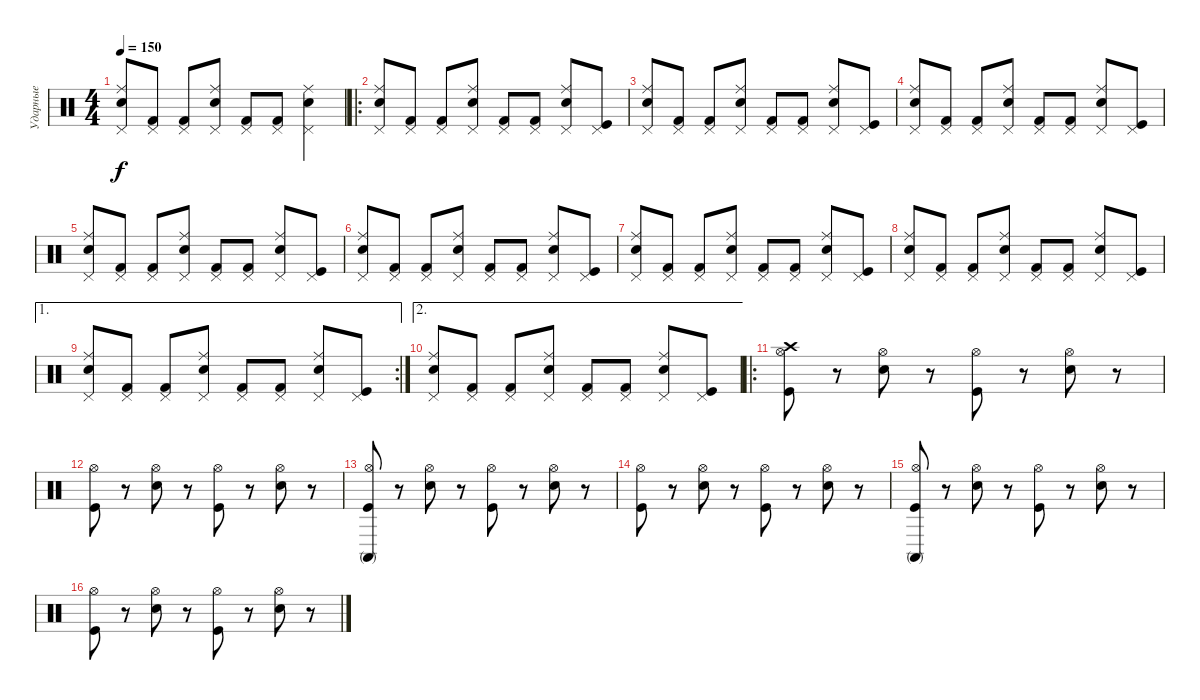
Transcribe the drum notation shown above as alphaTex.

\track ("Ударные" "Ударные") {instrument percussion}
\staff {score}
\articulation defaults
\ts (4 4)
\tempo 150
\clef neutral
\ks c
("Electric Snare (hit)" "Pedal Hi-Hat (hit)" "Ride (middle)").8{dy f} ("Kick (hit) 2" "Pedal Hi-Hat (hit)").8 ("Kick (hit) 2" "Pedal Hi-Hat (hit)").8 ("Electric Snare (hit)" "Pedal Hi-Hat (hit)" "Ride (middle)").8 ("Kick (hit) 2" "Pedal Hi-Hat (hit)").8 ("Kick (hit) 2" "Pedal Hi-Hat (hit)").8 ("Electric Snare (hit)" "Pedal Hi-Hat (hit)" "Ride (middle)").4 |
\ro
("Electric Snare (hit)" "Pedal Hi-Hat (hit)" "Ride (middle)").8 ("Kick (hit) 2" "Pedal Hi-Hat (hit)").8 ("Kick (hit) 2" "Pedal Hi-Hat (hit)").8 ("Electric Snare (hit)" "Pedal Hi-Hat (hit)" "Ride (middle)").8 ("Kick (hit) 2" "Pedal Hi-Hat (hit)").8 ("Kick (hit) 2" "Pedal Hi-Hat (hit)").8 ("Electric Snare (hit)" "Pedal Hi-Hat (hit)" "Ride (middle)").8 ("Kick (hit)" "Pedal Hi-Hat (hit)").8 |
("Electric Snare (hit)" "Pedal Hi-Hat (hit)" "Ride (middle)").8 ("Kick (hit) 2" "Pedal Hi-Hat (hit)").8 ("Kick (hit) 2" "Pedal Hi-Hat (hit)").8 ("Electric Snare (hit)" "Pedal Hi-Hat (hit)" "Ride (middle)").8 ("Kick (hit) 2" "Pedal Hi-Hat (hit)").8 ("Kick (hit) 2" "Pedal Hi-Hat (hit)").8 ("Electric Snare (hit)" "Pedal Hi-Hat (hit)" "Ride (middle)").8 ("Kick (hit)" "Pedal Hi-Hat (hit)").8 |
("Electric Snare (hit)" "Pedal Hi-Hat (hit)" "Ride (middle)").8 ("Kick (hit) 2" "Pedal Hi-Hat (hit)").8 ("Kick (hit) 2" "Pedal Hi-Hat (hit)").8 ("Electric Snare (hit)" "Pedal Hi-Hat (hit)" "Ride (middle)").8 ("Kick (hit) 2" "Pedal Hi-Hat (hit)").8 ("Kick (hit) 2" "Pedal Hi-Hat (hit)").8 ("Electric Snare (hit)" "Pedal Hi-Hat (hit)" "Ride (middle)").8 ("Kick (hit)" "Pedal Hi-Hat (hit)").8 |
("Electric Snare (hit)" "Pedal Hi-Hat (hit)" "Ride (middle)").8 ("Kick (hit) 2" "Pedal Hi-Hat (hit)").8 ("Kick (hit) 2" "Pedal Hi-Hat (hit)").8 ("Electric Snare (hit)" "Pedal Hi-Hat (hit)" "Ride (middle)").8 ("Kick (hit) 2" "Pedal Hi-Hat (hit)").8 ("Kick (hit) 2" "Pedal Hi-Hat (hit)").8 ("Electric Snare (hit)" "Pedal Hi-Hat (hit)" "Ride (middle)").8 ("Kick (hit)" "Pedal Hi-Hat (hit)").8 |
("Electric Snare (hit)" "Pedal Hi-Hat (hit)" "Ride (middle)").8 ("Kick (hit) 2" "Pedal Hi-Hat (hit)").8 ("Kick (hit) 2" "Pedal Hi-Hat (hit)").8 ("Electric Snare (hit)" "Pedal Hi-Hat (hit)" "Ride (middle)").8 ("Kick (hit) 2" "Pedal Hi-Hat (hit)").8 ("Kick (hit) 2" "Pedal Hi-Hat (hit)").8 ("Electric Snare (hit)" "Pedal Hi-Hat (hit)" "Ride (middle)").8 ("Kick (hit)" "Pedal Hi-Hat (hit)").8 |
("Electric Snare (hit)" "Pedal Hi-Hat (hit)" "Ride (middle)").8 ("Kick (hit) 2" "Pedal Hi-Hat (hit)").8 ("Kick (hit) 2" "Pedal Hi-Hat (hit)").8 ("Electric Snare (hit)" "Pedal Hi-Hat (hit)" "Ride (middle)").8 ("Kick (hit) 2" "Pedal Hi-Hat (hit)").8 ("Kick (hit) 2" "Pedal Hi-Hat (hit)").8 ("Electric Snare (hit)" "Pedal Hi-Hat (hit)" "Ride (middle)").8 ("Kick (hit)" "Pedal Hi-Hat (hit)").8 |
("Electric Snare (hit)" "Pedal Hi-Hat (hit)" "Ride (middle)").8 ("Kick (hit) 2" "Pedal Hi-Hat (hit)").8 ("Kick (hit) 2" "Pedal Hi-Hat (hit)").8 ("Electric Snare (hit)" "Pedal Hi-Hat (hit)" "Ride (middle)").8 ("Kick (hit) 2" "Pedal Hi-Hat (hit)").8 ("Kick (hit) 2" "Pedal Hi-Hat (hit)").8 ("Electric Snare (hit)" "Pedal Hi-Hat (hit)" "Ride (middle)").8 ("Kick (hit)" "Pedal Hi-Hat (hit)").8 |
\ae 1
\rc 2
("Electric Snare (hit)" "Pedal Hi-Hat (hit)" "Ride (middle)").8 ("Kick (hit) 2" "Pedal Hi-Hat (hit)").8 ("Kick (hit) 2" "Pedal Hi-Hat (hit)").8 ("Electric Snare (hit)" "Pedal Hi-Hat (hit)" "Ride (middle)").8 ("Kick (hit) 2" "Pedal Hi-Hat (hit)").8 ("Kick (hit) 2" "Pedal Hi-Hat (hit)").8 ("Electric Snare (hit)" "Pedal Hi-Hat (hit)" "Ride (middle)").8 ("Kick (hit)" "Pedal Hi-Hat (hit)").8 |
\ae 2
("Electric Snare (hit)" "Pedal Hi-Hat (hit)" "Ride (middle)").8 ("Kick (hit) 2" "Pedal Hi-Hat (hit)").8 ("Kick (hit) 2" "Pedal Hi-Hat (hit)").8 ("Electric Snare (hit)" "Pedal Hi-Hat (hit)" "Ride (middle)").8 ("Kick (hit) 2" "Pedal Hi-Hat (hit)").8 ("Kick (hit) 2" "Pedal Hi-Hat (hit)").8 ("Electric Snare (hit)" "Pedal Hi-Hat (hit)" "Ride (middle)").8 ("Kick (hit)" "Pedal Hi-Hat (hit)").8 |
\ro
("Hi-Hat (open)" "Kick (hit)" "Crash high (hit)").8 r.8 ("Hi-Hat (open)" "Snare (hit) 2").8 r.8 ("Hi-Hat (open)" "Kick (hit)").8 r.8 ("Hi-Hat (open)" "Snare (hit) 2").8 r.8 |
("Hi-Hat (open)" "Kick (hit)").8 r.8 ("Hi-Hat (open)" "Snare (hit) 2").8 r.8 ("Hi-Hat (open)" "Kick (hit)").8 r.8 ("Hi-Hat (open)" "Snare (hit) 2").8 r.8 |
("Hi-Hat (open)" "Kick (hit)" "Conga high (mute)").8 r.8 ("Hi-Hat (open)" "Snare (hit) 2").8 r.8 ("Hi-Hat (open)" "Kick (hit)").8 r.8 ("Hi-Hat (open)" "Snare (hit) 2").8 r.8 |
("Hi-Hat (open)" "Kick (hit)").8 r.8 ("Hi-Hat (open)" "Snare (hit) 2").8 r.8 ("Hi-Hat (open)" "Kick (hit)").8 r.8 ("Hi-Hat (open)" "Snare (hit) 2").8 r.8 |
("Hi-Hat (open)" "Kick (hit)" "Conga high (mute)").8 r.8 ("Hi-Hat (open)" "Snare (hit) 2").8 r.8 ("Hi-Hat (open)" "Kick (hit)").8 r.8 ("Hi-Hat (open)" "Snare (hit) 2").8 r.8 |
("Hi-Hat (open)" "Kick (hit)").8 r.8 ("Hi-Hat (open)" "Snare (hit) 2").8 r.8 ("Hi-Hat (open)" "Kick (hit)").8 r.8 ("Hi-Hat (open)" "Snare (hit) 2").8 r.8
